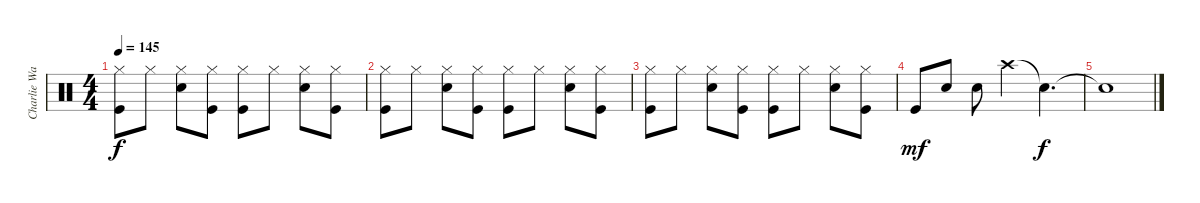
\track ("Charlie Watts" "Charlie Wa") {instrument percussion}
\staff {score}
\articulation defaults
\ts (4 4)
\tempo 145
\clef neutral
\ks c
("Hi-Hat (closed)" "Kick (hit)").8{dy f} "Hi-Hat (closed)".8 ("Hi-Hat (closed)" "Snare (hit) 2").8 ("Hi-Hat (closed)" "Kick (hit)").8 ("Hi-Hat (closed)" "Kick (hit)").8 "Hi-Hat (closed)".8 ("Hi-Hat (closed)" "Snare (hit) 2").8 ("Hi-Hat (closed)" "Kick (hit)").8 |
("Hi-Hat (closed)" "Kick (hit)").8 "Hi-Hat (closed)".8 ("Hi-Hat (closed)" "Snare (hit) 2").8 ("Hi-Hat (closed)" "Kick (hit)").8 ("Hi-Hat (closed)" "Kick (hit)").8 "Hi-Hat (closed)".8 ("Hi-Hat (closed)" "Snare (hit) 2").8 ("Hi-Hat (closed)" "Kick (hit)").8 |
("Hi-Hat (closed)" "Kick (hit)").8 "Hi-Hat (closed)".8 ("Hi-Hat (closed)" "Snare (hit) 2").8 ("Hi-Hat (closed)" "Kick (hit)").8 ("Hi-Hat (closed)" "Kick (hit)").8 "Hi-Hat (closed)".8 ("Hi-Hat (closed)" "Snare (hit) 2").8 ("Hi-Hat (closed)" "Kick (hit)").8 |
"Kick (hit)".8{dy mf} "Snare (hit) 2".8 "Snare (hit) 2".8 "Crash high (hit)".4 "Snare (hit)"{t}.4{d dy f} |
"Snare (hit)"{t}.1
